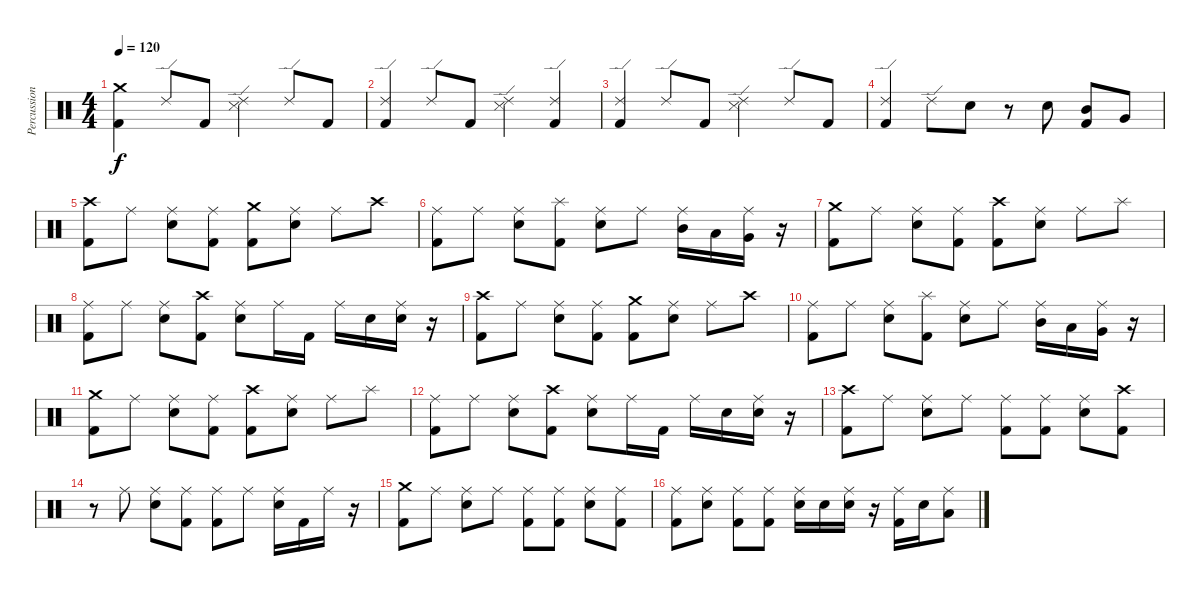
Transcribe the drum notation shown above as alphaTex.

\track ("Percussion" "Percussion") {instrument percussion}
\staff {score}
\articulation defaults
\ts (4 4)
\tempo 120
\clef neutral
\ks c
("Crash medium (hit)" "Kick (hit) 2").4{dy f} "Ride (edge) 2".8 "Kick (hit) 2".8 ("Ride (edge) 2" "Snare (side stick) 3").4 "Ride (edge) 2".8 "Kick (hit) 2".8 |
("Ride (edge) 2" "Kick (hit) 2").4 "Ride (edge) 2".8 "Kick (hit) 2".8 ("Ride (edge) 2" "Snare (side stick) 3").4 ("Ride (edge) 2" "Kick (hit) 2").4 |
("Ride (edge) 2" "Kick (hit) 2").4 "Ride (edge) 2".8 "Kick (hit) 2".8 ("Ride (edge) 2" "Snare (side stick) 3").4 "Ride (edge) 2".8 "Kick (hit) 2".8 |
("Ride (edge) 2" "Kick (hit) 2").4 "Ride (edge) 2".8 "Snare (hit) 2".8 r.8 "Snare (hit) 2".8 ("Mid Tom (hit)" "Kick (hit) 2").8 "Very Low Tom (hit)".8 |
("Crash high (hit)" "Kick (hit) 2").8 "Ride (middle)".8 ("Ride (middle)" "Snare (hit) 2").8 ("Ride (middle)" "Kick (hit) 2").8 ("Crash medium (hit)" "Kick (hit) 2").8 ("Ride (middle)" "Snare (hit) 2").8 "Ride (middle)".8 "Crash high (hit)".8 |
("Ride (middle)" "Kick (hit) 2").8 "Ride (middle)".8 ("Ride (middle)" "Snare (hit) 2").8 ("Splash (hit)" "Kick (hit) 2").8 ("Ride (middle)" "Snare (hit) 2").8 "Ride (middle)".8 ("Ride (middle)" "Mid Tom (hit)").16 "Low Tom (hit)".16 ("Ride (middle)" "Very Low Tom (hit)").16 r.16 |
("Crash medium (hit)" "Kick (hit) 2").8 "Ride (middle)".8 ("Ride (middle)" "Snare (hit) 2").8 ("Ride (middle)" "Kick (hit) 2").8 ("Crash high (hit)" "Kick (hit) 2").8 ("Ride (middle)" "Snare (hit) 2").8 "Ride (middle)".8 "Splash (hit)".8 |
("Ride (middle)" "Kick (hit) 2").8 "Ride (middle)".8 ("Ride (middle)" "Snare (hit) 2").8 ("Crash high (hit)" "Kick (hit) 2").8 ("Ride (middle)" "Snare (hit) 2").8 "Ride (middle)".16 "Kick (hit) 2".16 "Ride (middle)".16 "Snare (hit) 2".16 ("Ride (middle)" "Snare (hit) 2").16 r.16 |
("Crash high (hit)" "Kick (hit) 2").8 "Ride (middle)".8 ("Ride (middle)" "Snare (hit) 2").8 ("Ride (middle)" "Kick (hit) 2").8 ("Crash medium (hit)" "Kick (hit) 2").8 ("Ride (middle)" "Snare (hit) 2").8 "Ride (middle)".8 "Crash high (hit)".8 |
("Ride (middle)" "Kick (hit) 2").8 "Ride (middle)".8 ("Ride (middle)" "Snare (hit) 2").8 ("Splash (hit)" "Kick (hit) 2").8 ("Ride (middle)" "Snare (hit) 2").8 "Ride (middle)".8 ("Ride (middle)" "Mid Tom (hit)").16 "Low Tom (hit)".16 ("Ride (middle)" "Very Low Tom (hit)").16 r.16 |
("Crash medium (hit)" "Kick (hit) 2").8 "Ride (middle)".8 ("Ride (middle)" "Snare (hit) 2").8 ("Ride (middle)" "Kick (hit) 2").8 ("Crash high (hit)" "Kick (hit) 2").8 ("Ride (middle)" "Snare (hit) 2").8 "Ride (middle)".8 "Splash (hit)".8 |
("Ride (middle)" "Kick (hit) 2").8 "Ride (middle)".8 ("Ride (middle)" "Snare (hit) 2").8 ("Crash high (hit)" "Kick (hit) 2").8 ("Ride (middle)" "Snare (hit) 2").8 "Ride (middle)".16 "Kick (hit) 2".16 "Ride (middle)".16 "Snare (hit) 2".16 ("Ride (middle)" "Snare (hit) 2").16 r.16 |
("Crash high (hit)" "Kick (hit) 2").8 "Ride (middle)".8 ("Ride (middle)" "Snare (hit) 2").8 "Ride (middle)".8 ("Ride (middle)" "Kick (hit) 2").8 ("Ride (middle)" "Kick (hit) 2").8 ("Ride (middle)" "Snare (hit) 2").8 ("Crash high (hit)" "Kick (hit) 2").8 |
r.8 "Ride (middle)".8 ("Ride (middle)" "Snare (hit) 2").8 ("Ride (middle)" "Kick (hit) 2").8 ("Ride (middle)" "Kick (hit) 2").8 "Ride (middle)".8 ("Ride (middle)" "Snare (hit) 2").16 "Kick (hit) 2".16 "Ride (middle)".16 r.16 |
("Crash medium (hit)" "Kick (hit) 2").8 "Ride (middle)".8 ("Ride (middle)" "Snare (hit) 2").8 "Ride (middle)".8 ("Ride (middle)" "Kick (hit) 2").8 ("Ride (middle)" "Kick (hit) 2").8 ("Ride (middle)" "Snare (hit) 2").8 ("Ride (middle)" "Kick (hit) 2").8 |
("Ride (middle)" "Kick (hit) 2").8 ("Ride (middle)" "Snare (hit) 2").8 ("Ride (middle)" "Kick (hit) 2").8 ("Ride (middle)" "Kick (hit) 2").8 ("Ride (middle)" "Snare (hit) 2").16 "Snare (hit) 2".16 ("Ride (middle)" "Snare (hit) 2").16 r.16 ("Ride (middle)" "Kick (hit) 2").16 "Snare (hit) 2".16 ("Ride (middle)" "Low Tom (hit)").8
